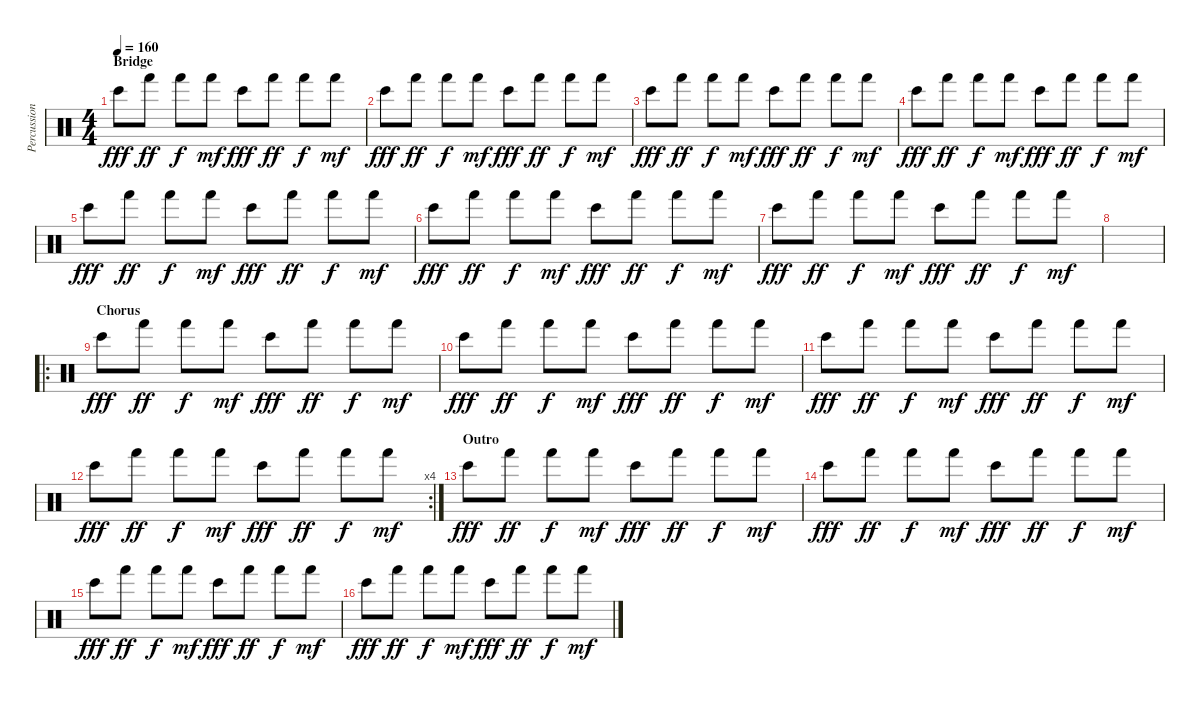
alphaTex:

\track ("Percussion" "Percussion") {instrument percussion}
\staff {score}
\articulation defaults
\ts (4 4)
\section ("" "Bridge")
\tempo 160
\clef neutral
\ks c "Bongo High (hit)".8{dy fff} "Hand (hit)".8{dy ff} "Hand (hit)".8{dy f} "Hand (hit)".8{dy mf} "Bongo High (hit)".8{dy fff} "Hand (hit)".8{dy ff} "Hand (hit)".8{dy f} "Hand (hit)".8{dy mf}
|
"Bongo High (hit)".8{dy fff} "Hand (hit)".8{dy ff} "Hand (hit)".8{dy f} "Hand (hit)".8{dy mf} "Bongo High (hit)".8{dy fff} "Hand (hit)".8{dy ff} "Hand (hit)".8{dy f} "Hand (hit)".8{dy mf} |
"Bongo High (hit)".8{dy fff} "Hand (hit)".8{dy ff} "Hand (hit)".8{dy f} "Hand (hit)".8{dy mf} "Bongo High (hit)".8{dy fff} "Hand (hit)".8{dy ff} "Hand (hit)".8{dy f} "Hand (hit)".8{dy mf} |
"Bongo High (hit)".8{dy fff} "Hand (hit)".8{dy ff} "Hand (hit)".8{dy f} "Hand (hit)".8{dy mf} "Bongo High (hit)".8{dy fff} "Hand (hit)".8{dy ff} "Hand (hit)".8{dy f} "Hand (hit)".8{dy mf} |
"Bongo High (hit)".8{dy fff} "Hand (hit)".8{dy ff} "Hand (hit)".8{dy f} "Hand (hit)".8{dy mf} "Bongo High (hit)".8{dy fff} "Hand (hit)".8{dy ff} "Hand (hit)".8{dy f} "Hand (hit)".8{dy mf} |
"Bongo High (hit)".8{dy fff} "Hand (hit)".8{dy ff} "Hand (hit)".8{dy f} "Hand (hit)".8{dy mf} "Bongo High (hit)".8{dy fff} "Hand (hit)".8{dy ff} "Hand (hit)".8{dy f} "Hand (hit)".8{dy mf} |
"Bongo High (hit)".8{dy fff} "Hand (hit)".8{dy ff} "Hand (hit)".8{dy f} "Hand (hit)".8{dy mf} "Bongo High (hit)".8{dy fff} "Hand (hit)".8{dy ff} "Hand (hit)".8{dy f} "Hand (hit)".8{dy mf} |
|
\ro
\section ("" "Chorus")
"Bongo High (hit)".8{dy fff} "Hand (hit)".8{dy ff} "Hand (hit)".8{dy f} "Hand (hit)".8{dy mf} "Bongo High (hit)".8{dy fff} "Hand (hit)".8{dy ff} "Hand (hit)".8{dy f} "Hand (hit)".8{dy mf} |
"Bongo High (hit)".8{dy fff} "Hand (hit)".8{dy ff} "Hand (hit)".8{dy f} "Hand (hit)".8{dy mf} "Bongo High (hit)".8{dy fff} "Hand (hit)".8{dy ff} "Hand (hit)".8{dy f} "Hand (hit)".8{dy mf} |
"Bongo High (hit)".8{dy fff} "Hand (hit)".8{dy ff} "Hand (hit)".8{dy f} "Hand (hit)".8{dy mf} "Bongo High (hit)".8{dy fff} "Hand (hit)".8{dy ff} "Hand (hit)".8{dy f} "Hand (hit)".8{dy mf} |
\rc 4 "Bongo High (hit)".8{dy fff} "Hand (hit)".8{dy ff} "Hand (hit)".8{dy f} "Hand (hit)".8{dy mf} "Bongo High (hit)".8{dy fff} "Hand (hit)".8{dy ff} "Hand (hit)".8{dy f} "Hand (hit)".8{dy mf}
|
\section ("" "Outro")
"Bongo High (hit)".8{dy fff} "Hand (hit)".8{dy ff} "Hand (hit)".8{dy f} "Hand (hit)".8{dy mf} "Bongo High (hit)".8{dy fff} "Hand (hit)".8{dy ff} "Hand (hit)".8{dy f} "Hand (hit)".8{dy mf} |
"Bongo High (hit)".8{dy fff} "Hand (hit)".8{dy ff} "Hand (hit)".8{dy f} "Hand (hit)".8{dy mf} "Bongo High (hit)".8{dy fff} "Hand (hit)".8{dy ff} "Hand (hit)".8{dy f} "Hand (hit)".8{dy mf} |
"Bongo High (hit)".8{dy fff} "Hand (hit)".8{dy ff} "Hand (hit)".8{dy f} "Hand (hit)".8{dy mf} "Bongo High (hit)".8{dy fff} "Hand (hit)".8{dy ff} "Hand (hit)".8{dy f} "Hand (hit)".8{dy mf} |
"Bongo High (hit)".8{dy fff} "Hand (hit)".8{dy ff} "Hand (hit)".8{dy f} "Hand (hit)".8{dy mf} "Bongo High (hit)".8{dy fff} "Hand (hit)".8{dy ff} "Hand (hit)".8{dy f} "Hand (hit)".8{dy mf}
